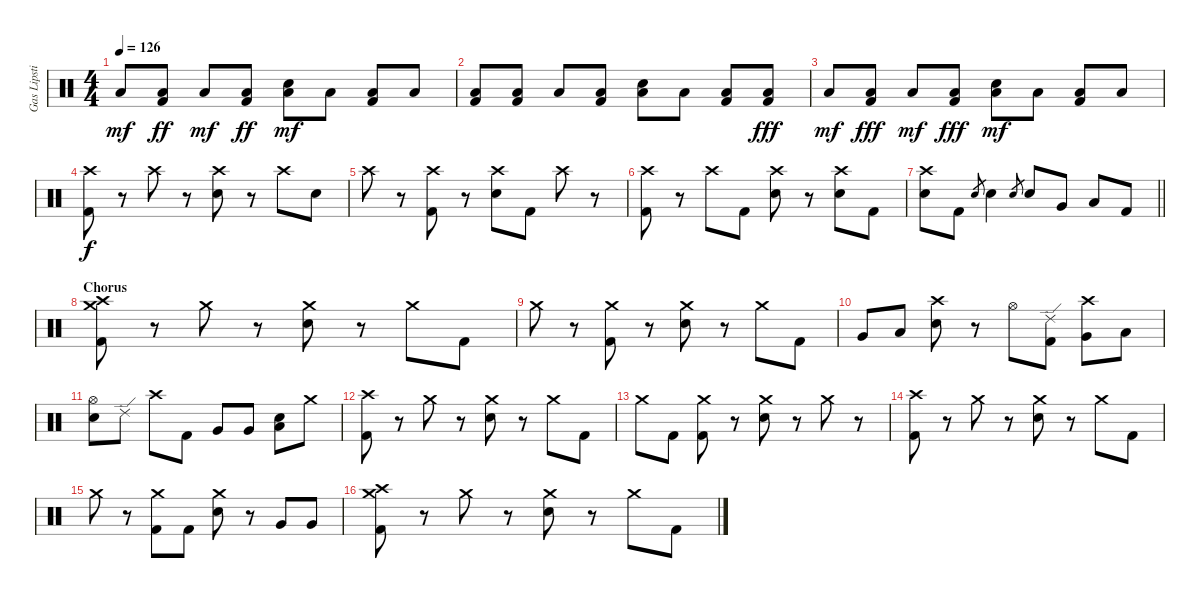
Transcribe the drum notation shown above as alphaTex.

\track ("Gas Lipstick (Drums)" "Gas Lipsti") {instrument percussion}
\staff {score}
\articulation defaults
\ts (4 4)
\tempo 126
\clef neutral
\ks c "Low Floor Tom (hit)".8{dy mf}
("Low Floor Tom (hit)" "Kick (hit) 2").8{dy ff} "Low Floor Tom (hit)".8{dy mf} ("Low Floor Tom (hit)" "Kick (hit) 2").8{dy ff} ("Low Floor Tom (hit)" "Snare (hit) 2").8{dy mf} "Low Floor Tom (hit)".8 ("Low Floor Tom (hit)" "Kick (hit) 2").8 "Low Floor Tom (hit)".8 |
("Low Floor Tom (hit)" "Kick (hit) 2").8 ("Low Floor Tom (hit)" "Kick (hit) 2").8 "Low Floor Tom (hit)".8 ("Low Floor Tom (hit)" "Kick (hit) 2").8 ("Low Floor Tom (hit)" "Snare (hit) 2").8 "Low Floor Tom (hit)".8 ("Low Floor Tom (hit)" "Kick (hit) 2").8 ("Low Floor Tom (hit)" "Kick (hit) 2").8{dy fff} |
"Low Floor Tom (hit)".8{dy mf} ("Low Floor Tom (hit)" "Kick (hit) 2").8{dy fff} "Low Floor Tom (hit)".8{dy mf} ("Low Floor Tom (hit)" "Kick (hit) 2").8{dy fff} ("Low Floor Tom (hit)" "Snare (hit) 2").8{dy mf} "Low Floor Tom (hit)".8 ("Low Floor Tom (hit)" "Kick (hit) 2").8 "Low Floor Tom (hit)".8 |
("Crash high (hit)" "Kick (hit) 2").8{dy f} r.8 "Crash high (hit)".8 r.8 ("Crash high (hit)" "Snare (hit) 2").8 r.8 "Crash high (hit)".8 "Snare (hit) 2".8 |
"Crash high (hit)".8 r.8 ("Crash high (hit)" "Kick (hit) 2").8 r.8 ("Crash high (hit)" "Snare (hit) 2").8 "Kick (hit) 2".8 "Crash high (hit)".8 r.8 |
("Crash high (hit)" "Kick (hit) 2").8 r.8 "Crash high (hit)".8 "Kick (hit) 2".8 ("Crash high (hit)" "Snare (hit) 2").8 r.8 ("Crash high (hit)" "Snare (hit) 2").8 "Kick (hit) 2".8 |
\barLineRight lightlight
("Crash high (hit)" "Snare (hit) 2").8 "Kick (hit) 2".8 "Snare (hit) 2".8{gr} "Snare (hit) 2".4 "Snare (hit) 2".8{gr} "Snare (hit) 2".8 "Very Low Tom (hit)".8 "Low Floor Tom (hit)".8 "Kick (hit) 2".8 |
\section ("" "Chorus")
("Crash high (hit)" "Crash medium (hit)" "Kick (hit) 2").8 r.8 "Crash medium (hit)".8 r.8 ("Crash medium (hit)" "Snare (hit) 2").8 r.8 "Crash medium (hit)".8 "Kick (hit) 2".8 |
"Crash medium (hit)".8 r.8 ("Crash medium (hit)" "Kick (hit) 2").8 r.8 ("Crash medium (hit)" "Snare (hit) 2").8 r.8 "Crash medium (hit)".8 "Kick (hit) 2".8 |
"Very Low Tom (hit)".8 "Low Floor Tom (hit)".8 ("Crash high (hit)" "Snare (hit) 2").8 r.8 "Hi-Hat (open)".8 ("Ride (edge) 2" "Kick (hit) 2").8 ("Crash high (hit)" "Very Low Tom (hit)").8 "Low Floor Tom (hit)".8 |
("Hi-Hat (open)" "Snare (hit) 2").8 "Ride (edge) 2".8 "Crash high (hit)".8 "Kick (hit) 2".8 "Very Low Tom (hit)".8 "Very Low Tom (hit)".8 ("Low Floor Tom (hit)" "Snare (hit) 2").8 "Crash medium (hit)".8 |
("Crash high (hit)" "Kick (hit) 2").8 r.8 "Crash medium (hit)".8 r.8 ("Crash medium (hit)" "Snare (hit) 2").8 r.8 "Crash medium (hit)".8 "Kick (hit) 2".8 |
"Crash medium (hit)".8 "Kick (hit) 2".8 ("Crash medium (hit)" "Kick (hit) 2").8 r.8 ("Crash medium (hit)" "Snare (hit) 2").8 r.8 "Crash medium (hit)".8 r.8 |
("Crash high (hit)" "Kick (hit) 2").8 r.8 "Crash medium (hit)".8 r.8 ("Crash medium (hit)" "Snare (hit) 2").8 r.8 "Crash medium (hit)".8 "Kick (hit) 2".8 |
"Crash medium (hit)".8 r.8 ("Crash medium (hit)" "Kick (hit) 2").8 "Kick (hit) 2".8 ("Crash medium (hit)" "Snare (hit) 2").8 r.8 "Very Low Tom (hit)".8 "Very Low Tom (hit)".8 |
("Crash high (hit)" "Crash medium (hit)" "Kick (hit) 2").8 r.8 "Crash medium (hit)".8 r.8 ("Crash medium (hit)" "Snare (hit) 2").8 r.8 "Crash medium (hit)".8 "Kick (hit) 2".8
